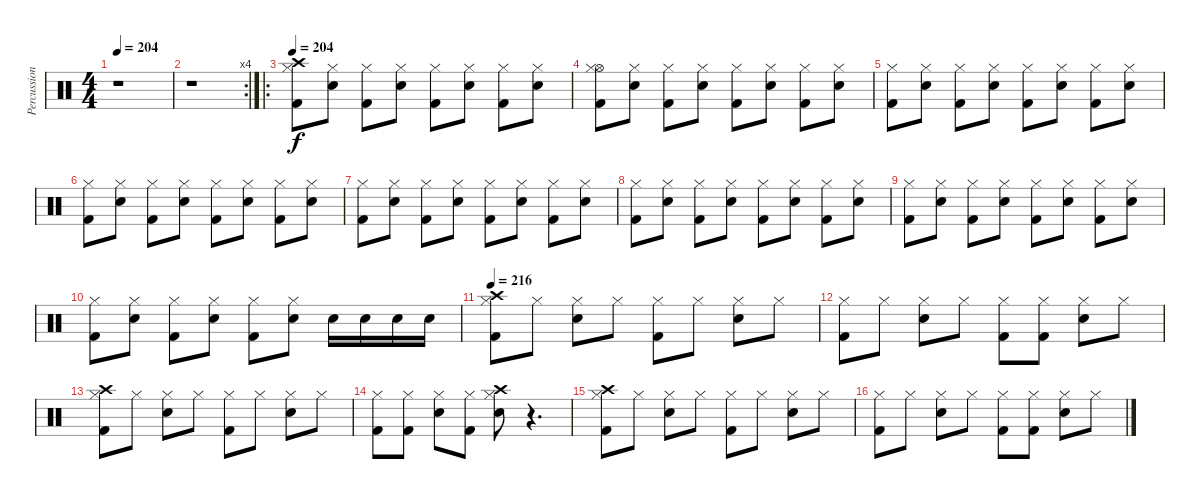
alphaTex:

\track ("Percussion" "Percussion") {instrument percussion}
\staff {score}
\articulation defaults
\ts (4 4)
\tempo 204
\clef neutral
\ks c
r.1{dy f} |
\rc 4
r.1 |
\ro
\tempo 204
("Crash high (hit)" "Hi-Hat (closed)" "Kick (hit) 2").8 ("Hi-Hat (closed)" "Snare (hit) 2").8 ("Hi-Hat (closed)" "Kick (hit) 2").8 ("Hi-Hat (closed)" "Snare (hit) 2").8 ("Hi-Hat (closed)" "Kick (hit) 2").8 ("Hi-Hat (closed)" "Snare (hit) 2").8 ("Hi-Hat (closed)" "Kick (hit) 2").8 ("Hi-Hat (closed)" "Snare (hit) 2").8 |
("Hi-Hat (open)" "Hi-Hat (closed)" "Kick (hit) 2").8 ("Hi-Hat (closed)" "Snare (hit) 2").8 ("Hi-Hat (closed)" "Kick (hit) 2").8 ("Hi-Hat (closed)" "Snare (hit) 2").8 ("Hi-Hat (closed)" "Kick (hit) 2").8 ("Hi-Hat (closed)" "Snare (hit) 2").8 ("Hi-Hat (closed)" "Kick (hit) 2").8 ("Hi-Hat (closed)" "Snare (hit) 2").8 |
("Hi-Hat (closed)" "Kick (hit) 2").8 ("Hi-Hat (closed)" "Snare (hit) 2").8 ("Hi-Hat (closed)" "Kick (hit) 2").8 ("Hi-Hat (closed)" "Snare (hit) 2").8 ("Hi-Hat (closed)" "Kick (hit) 2").8 ("Hi-Hat (closed)" "Snare (hit) 2").8 ("Hi-Hat (closed)" "Kick (hit) 2").8 ("Hi-Hat (closed)" "Snare (hit) 2").8 |
("Hi-Hat (closed)" "Kick (hit) 2").8 ("Hi-Hat (closed)" "Snare (hit) 2").8 ("Hi-Hat (closed)" "Kick (hit) 2").8 ("Hi-Hat (closed)" "Snare (hit) 2").8 ("Hi-Hat (closed)" "Kick (hit) 2").8 ("Hi-Hat (closed)" "Snare (hit) 2").8 ("Hi-Hat (closed)" "Kick (hit) 2").8 ("Hi-Hat (closed)" "Snare (hit) 2").8 |
("Hi-Hat (closed)" "Kick (hit) 2").8 ("Hi-Hat (closed)" "Snare (hit) 2").8 ("Hi-Hat (closed)" "Kick (hit) 2").8 ("Hi-Hat (closed)" "Snare (hit) 2").8 ("Hi-Hat (closed)" "Kick (hit) 2").8 ("Hi-Hat (closed)" "Snare (hit) 2").8 ("Hi-Hat (closed)" "Kick (hit) 2").8 ("Hi-Hat (closed)" "Snare (hit) 2").8 |
("Hi-Hat (closed)" "Kick (hit) 2").8 ("Hi-Hat (closed)" "Snare (hit) 2").8 ("Hi-Hat (closed)" "Kick (hit) 2").8 ("Hi-Hat (closed)" "Snare (hit) 2").8 ("Hi-Hat (closed)" "Kick (hit) 2").8 ("Hi-Hat (closed)" "Snare (hit) 2").8 ("Hi-Hat (closed)" "Kick (hit) 2").8 ("Hi-Hat (closed)" "Snare (hit) 2").8 |
("Hi-Hat (closed)" "Kick (hit) 2").8 ("Hi-Hat (closed)" "Snare (hit) 2").8 ("Hi-Hat (closed)" "Kick (hit) 2").8 ("Hi-Hat (closed)" "Snare (hit) 2").8 ("Hi-Hat (closed)" "Kick (hit) 2").8 ("Hi-Hat (closed)" "Snare (hit) 2").8 ("Hi-Hat (closed)" "Kick (hit) 2").8 ("Hi-Hat (closed)" "Snare (hit) 2").8 |
("Hi-Hat (closed)" "Kick (hit) 2").8 ("Hi-Hat (closed)" "Snare (hit) 2").8 ("Hi-Hat (closed)" "Kick (hit) 2").8 ("Hi-Hat (closed)" "Snare (hit) 2").8 ("Hi-Hat (closed)" "Kick (hit) 2").8 ("Hi-Hat (closed)" "Snare (hit) 2").8 "Snare (hit) 2".16 "Snare (hit) 2".16 "Snare (hit) 2".16 "Snare (hit) 2".16 |
\tempo 216
("Hi-Hat (closed)" "Crash high (hit)" "Kick (hit) 2").8 "Hi-Hat (closed)".8 ("Hi-Hat (closed)" "Snare (hit) 2").8 "Hi-Hat (closed)".8 ("Hi-Hat (closed)" "Kick (hit) 2").8 "Hi-Hat (closed)".8 ("Hi-Hat (closed)" "Snare (hit) 2").8 "Hi-Hat (closed)".8 |
("Hi-Hat (closed)" "Kick (hit) 2").8 "Hi-Hat (closed)".8 ("Hi-Hat (closed)" "Snare (hit) 2").8 "Hi-Hat (closed)".8 ("Hi-Hat (closed)" "Kick (hit) 2").8 ("Hi-Hat (closed)" "Kick (hit) 2").8 ("Hi-Hat (closed)" "Snare (hit) 2").8 "Hi-Hat (closed)".8 |
("Hi-Hat (closed)" "Crash high (hit)" "Kick (hit) 2").8 "Hi-Hat (closed)".8 ("Hi-Hat (closed)" "Snare (hit) 2").8 "Hi-Hat (closed)".8 ("Hi-Hat (closed)" "Kick (hit) 2").8 "Hi-Hat (closed)".8 ("Hi-Hat (closed)" "Snare (hit) 2").8 "Hi-Hat (closed)".8 |
("Hi-Hat (closed)" "Kick (hit) 2").8 ("Hi-Hat (closed)" "Kick (hit) 2").8 ("Hi-Hat (closed)" "Snare (hit) 2").8 ("Hi-Hat (closed)" "Kick (hit) 2").8 ("Hi-Hat (closed)" "Crash high (hit)" "Snare (hit) 2").8 r.4{d} |
("Hi-Hat (closed)" "Crash high (hit)" "Kick (hit) 2").8 "Hi-Hat (closed)".8 ("Hi-Hat (closed)" "Snare (hit) 2").8 "Hi-Hat (closed)".8 ("Hi-Hat (closed)" "Kick (hit) 2").8 "Hi-Hat (closed)".8 ("Hi-Hat (closed)" "Snare (hit) 2").8 "Hi-Hat (closed)".8 |
("Hi-Hat (closed)" "Kick (hit) 2").8 "Hi-Hat (closed)".8 ("Hi-Hat (closed)" "Snare (hit) 2").8 "Hi-Hat (closed)".8 ("Hi-Hat (closed)" "Kick (hit) 2").8 ("Hi-Hat (closed)" "Kick (hit) 2").8 ("Hi-Hat (closed)" "Snare (hit) 2").8 "Hi-Hat (closed)".8
